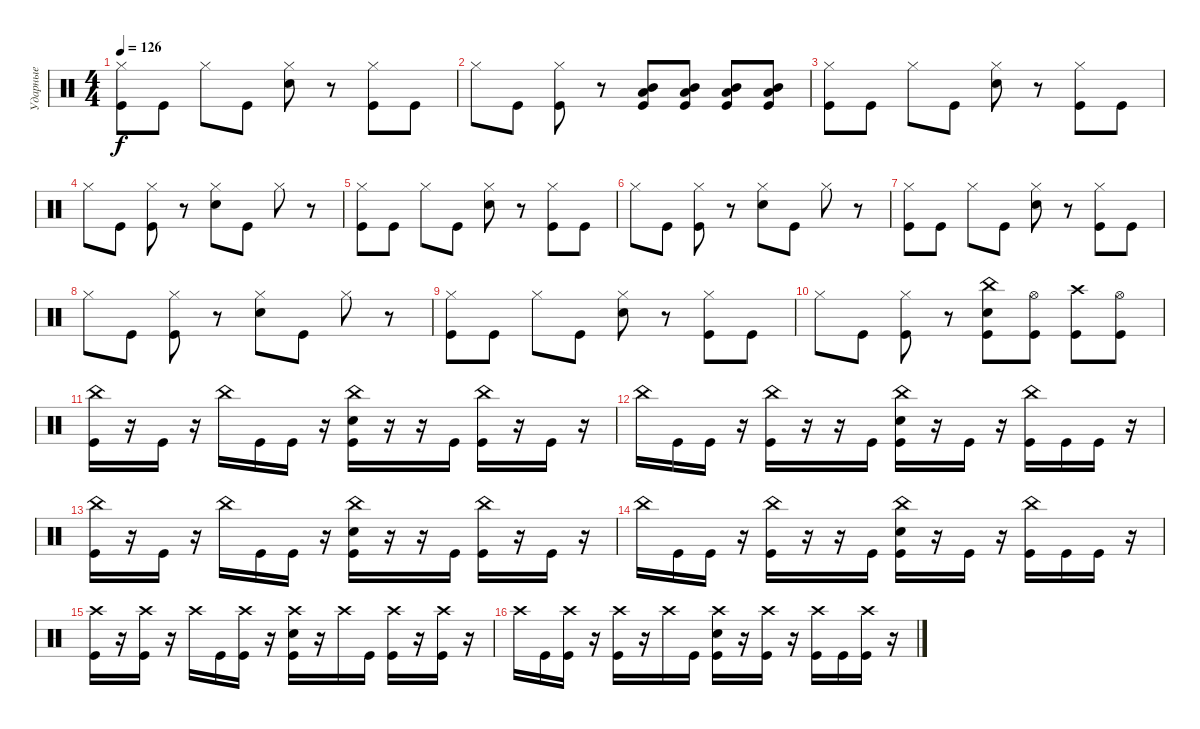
\track ("Ударные" "Ударные") {instrument percussion}
\staff {score}
\articulation defaults
\ts (4 4)
\tempo 126
\clef neutral
\ks c
("Hi-Hat (closed)" "Kick (hit)").8{dy f} "Kick (hit)".8 "Hi-Hat (closed)".8 "Kick (hit)".8 ("Hi-Hat (closed)" "Electric Snare (hit)").8 r.8 ("Hi-Hat (closed)" "Kick (hit)").8 "Kick (hit)".8 |
"Hi-Hat (closed)".8 "Kick (hit)".8 ("Hi-Hat (closed)" "Kick (hit)").8 r.8 ("Low Floor Tom (hit)" "Mid Tom (hit)" "Kick (hit)").8 ("Low Floor Tom (hit)" "Mid Tom (hit)" "Kick (hit)").8 ("Low Floor Tom (hit)" "Mid Tom (hit)" "Kick (hit)").8 ("Low Floor Tom (hit)" "Mid Tom (hit)" "Kick (hit)").8 |
("Hi-Hat (closed)" "Kick (hit)").8 "Kick (hit)".8 "Hi-Hat (closed)".8 "Kick (hit)".8 ("Hi-Hat (closed)" "Electric Snare (hit)").8 r.8 ("Hi-Hat (closed)" "Kick (hit)").8 "Kick (hit)".8 |
"Hi-Hat (closed)".8 "Kick (hit)".8 ("Hi-Hat (closed)" "Kick (hit)").8 r.8 ("Hi-Hat (closed)" "Electric Snare (hit)").8 "Kick (hit)".8 "Hi-Hat (closed)".8 r.8 |
("Hi-Hat (closed)" "Kick (hit)").8 "Kick (hit)".8 "Hi-Hat (closed)".8 "Kick (hit)".8 ("Hi-Hat (closed)" "Electric Snare (hit)").8 r.8 ("Hi-Hat (closed)" "Kick (hit)").8 "Kick (hit)".8 |
"Hi-Hat (closed)".8 "Kick (hit)".8 ("Hi-Hat (closed)" "Kick (hit)").8 r.8 ("Hi-Hat (closed)" "Electric Snare (hit)").8 "Kick (hit)".8 "Hi-Hat (closed)".8 r.8 |
("Hi-Hat (closed)" "Kick (hit)").8 "Kick (hit)".8 "Hi-Hat (closed)".8 "Kick (hit)".8 ("Hi-Hat (closed)" "Electric Snare (hit)").8 r.8 ("Hi-Hat (closed)" "Kick (hit)").8 "Kick (hit)".8 |
"Hi-Hat (closed)".8 "Kick (hit)".8 ("Hi-Hat (closed)" "Kick (hit)").8 r.8 ("Hi-Hat (closed)" "Electric Snare (hit)").8 "Kick (hit)".8 "Hi-Hat (closed)".8 r.8 |
("Hi-Hat (closed)" "Kick (hit)").8 "Kick (hit)".8 "Hi-Hat (closed)".8 "Kick (hit)".8 ("Hi-Hat (closed)" "Electric Snare (hit)").8 r.8 ("Hi-Hat (closed)" "Kick (hit)").8 "Kick (hit)".8 |
"Hi-Hat (closed)".8 "Kick (hit)".8 ("Hi-Hat (closed)" "Kick (hit)").8 r.8 ("China (hit)" "Electric Snare (hit)" "Kick (hit)").8 ("Hi-Hat (open)" "Kick (hit)").8 ("Crash high (hit)" "Kick (hit)").8 ("Hi-Hat (open)" "Kick (hit)").8 |
("China (hit)" "Kick (hit)").16 r.16 "Kick (hit)".16 r.16 "China (hit)".16 "Kick (hit)".16 "Kick (hit)".16 r.16 ("China (hit)" "Kick (hit)" "Electric Snare (hit)").16 r.16 r.16 "Kick (hit)".16 ("China (hit)" "Kick (hit)").16 r.16 "Kick (hit)".16 r.16 |
"China (hit)".16 "Kick (hit)".16 "Kick (hit)".16 r.16 ("China (hit)" "Kick (hit)").16 r.16 r.16 "Kick (hit)".16 ("China (hit)" "Kick (hit)" "Electric Snare (hit)").16 r.16 "Kick (hit)".16 r.16 ("China (hit)" "Kick (hit)").16 "Kick (hit)".16 "Kick (hit)".16 r.16 |
("China (hit)" "Kick (hit)").16 r.16 "Kick (hit)".16 r.16 "China (hit)".16 "Kick (hit)".16 "Kick (hit)".16 r.16 ("China (hit)" "Kick (hit)" "Electric Snare (hit)").16 r.16 r.16 "Kick (hit)".16 ("China (hit)" "Kick (hit)").16 r.16 "Kick (hit)".16 r.16 |
"China (hit)".16 "Kick (hit)".16 "Kick (hit)".16 r.16 ("China (hit)" "Kick (hit)").16 r.16 r.16 "Kick (hit)".16 ("China (hit)" "Kick (hit)" "Electric Snare (hit)").16 r.16 "Kick (hit)".16 r.16 ("China (hit)" "Kick (hit)").16 "Kick (hit)".16 "Kick (hit)".16 r.16 |
("Crash high (hit)" "Kick (hit)").16 r.16 ("Crash high (hit)" "Kick (hit)").16 r.16 "Crash high (hit)".16 "Kick (hit)".16 ("Crash high (hit)" "Kick (hit)").16 r.16 ("Crash high (hit)" "Kick (hit)" "Electric Snare (hit)").16 r.16 "Crash high (hit)".16 "Kick (hit)".16 ("Crash high (hit)" "Kick (hit)").16 r.16 ("Crash high (hit)" "Kick (hit)").16 r.16 |
"Crash high (hit)".16 "Kick (hit)".16 ("Crash high (hit)" "Kick (hit)").16 r.16 ("Crash high (hit)" "Kick (hit)").16 r.16 "Crash high (hit)".16 "Kick (hit)".16 ("Crash high (hit)" "Kick (hit)" "Electric Snare (hit)").16 r.16 ("Crash high (hit)" "Kick (hit)").16 r.16 ("Crash high (hit)" "Kick (hit)").16 "Kick (hit)".16 ("Crash high (hit)" "Kick (hit)").16 r.16
